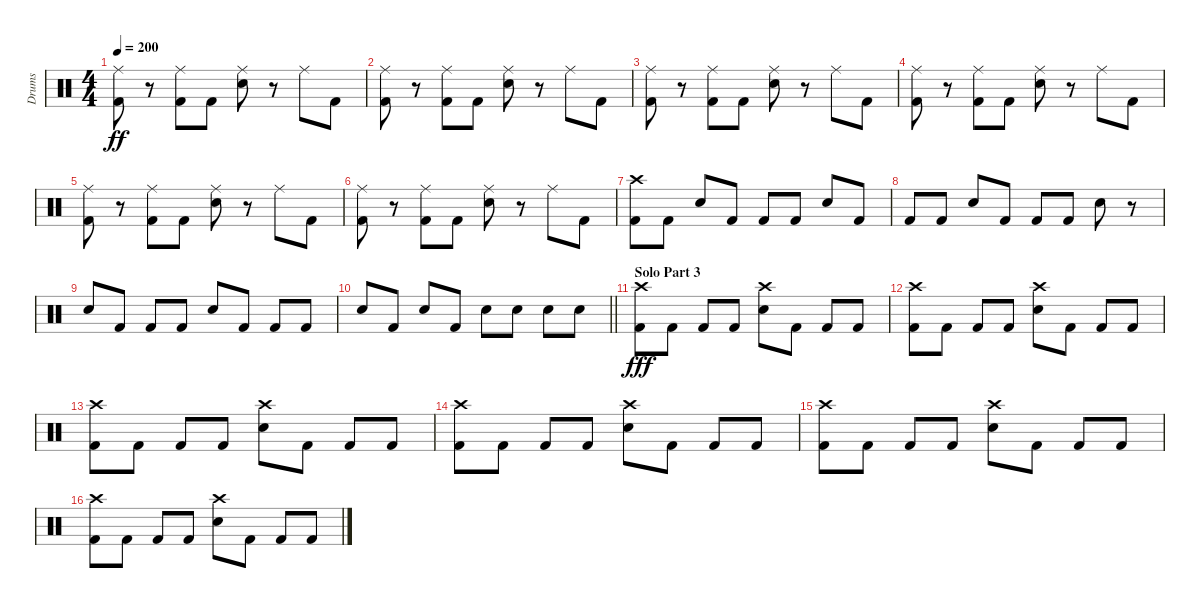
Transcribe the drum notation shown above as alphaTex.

\track ("Drums" "Drums") {instrument percussion}
\staff {score}
\articulation defaults
\ts (4 4)
\tempo 200
\clef neutral
\ks c
("Ride (middle)" "Kick (hit) 2").8{dy ff} r.8 ("Ride (middle)" "Kick (hit) 2").8 "Kick (hit) 2".8 ("Ride (middle)" "Electric Snare (hit)").8 r.8 "Ride (middle)".8 "Kick (hit) 2".8 |
("Ride (middle)" "Kick (hit) 2").8 r.8 ("Ride (middle)" "Kick (hit) 2").8 "Kick (hit) 2".8 ("Ride (middle)" "Electric Snare (hit)").8 r.8 "Ride (middle)".8 "Kick (hit) 2".8 |
("Ride (middle)" "Kick (hit) 2").8 r.8 ("Ride (middle)" "Kick (hit) 2").8 "Kick (hit) 2".8 ("Ride (middle)" "Electric Snare (hit)").8 r.8 "Ride (middle)".8 "Kick (hit) 2".8 |
("Ride (middle)" "Kick (hit) 2").8 r.8 ("Ride (middle)" "Kick (hit) 2").8 "Kick (hit) 2".8 ("Ride (middle)" "Electric Snare (hit)").8 r.8 "Ride (middle)".8 "Kick (hit) 2".8 |
("Ride (middle)" "Kick (hit) 2").8 r.8 ("Ride (middle)" "Kick (hit) 2").8 "Kick (hit) 2".8 ("Ride (middle)" "Electric Snare (hit)").8 r.8 "Ride (middle)".8 "Kick (hit) 2".8 |
("Ride (middle)" "Kick (hit) 2").8 r.8 ("Ride (middle)" "Kick (hit) 2").8 "Kick (hit) 2".8 ("Ride (middle)" "Electric Snare (hit)").8 r.8 "Ride (middle)".8 "Kick (hit) 2".8 |
("Crash high (hit)" "Kick (hit) 2").8 "Kick (hit) 2".8 "Electric Snare (hit)".8 "Kick (hit) 2".8 "Kick (hit) 2".8 "Kick (hit) 2".8 "Electric Snare (hit)".8 "Kick (hit) 2".8 |
"Kick (hit) 2".8 "Kick (hit) 2".8 "Electric Snare (hit)".8 "Kick (hit) 2".8 "Kick (hit) 2".8 "Kick (hit) 2".8 "Electric Snare (hit)".8 r.8 |
"Electric Snare (hit)".8 "Kick (hit) 2".8 "Kick (hit) 2".8 "Kick (hit) 2".8 "Electric Snare (hit)".8 "Kick (hit) 2".8 "Kick (hit) 2".8 "Kick (hit) 2".8 |
\barLineRight lightlight "Electric Snare (hit)".8 "Kick (hit) 2".8 "Electric Snare (hit)".8 "Kick (hit) 2".8 "Electric Snare (hit)".8 "Electric Snare (hit)".8 "Electric Snare (hit)".8 "Electric Snare (hit)".8
|
\section ("" "Solo Part 3")
("Crash high (hit)" "Kick (hit) 2").8{dy fff} "Kick (hit) 2".8 "Kick (hit) 2".8 "Kick (hit) 2".8 ("Crash high (hit)" "Electric Snare (hit)").8 "Kick (hit) 2".8 "Kick (hit) 2".8 "Kick (hit) 2".8 |
("Crash high (hit)" "Kick (hit) 2").8 "Kick (hit) 2".8 "Kick (hit) 2".8 "Kick (hit) 2".8 ("Crash high (hit)" "Electric Snare (hit)").8 "Kick (hit) 2".8 "Kick (hit) 2".8 "Kick (hit) 2".8 |
("Crash high (hit)" "Kick (hit) 2").8 "Kick (hit) 2".8 "Kick (hit) 2".8 "Kick (hit) 2".8 ("Crash high (hit)" "Electric Snare (hit)").8 "Kick (hit) 2".8 "Kick (hit) 2".8 "Kick (hit) 2".8 |
("Crash high (hit)" "Kick (hit) 2").8 "Kick (hit) 2".8 "Kick (hit) 2".8 "Kick (hit) 2".8 ("Crash high (hit)" "Electric Snare (hit)").8 "Kick (hit) 2".8 "Kick (hit) 2".8 "Kick (hit) 2".8 |
("Crash high (hit)" "Kick (hit) 2").8 "Kick (hit) 2".8 "Kick (hit) 2".8 "Kick (hit) 2".8 ("Crash high (hit)" "Electric Snare (hit)").8 "Kick (hit) 2".8 "Kick (hit) 2".8 "Kick (hit) 2".8 |
("Crash high (hit)" "Kick (hit) 2").8 "Kick (hit) 2".8 "Kick (hit) 2".8 "Kick (hit) 2".8 ("Crash high (hit)" "Electric Snare (hit)").8 "Kick (hit) 2".8 "Kick (hit) 2".8 "Kick (hit) 2".8
